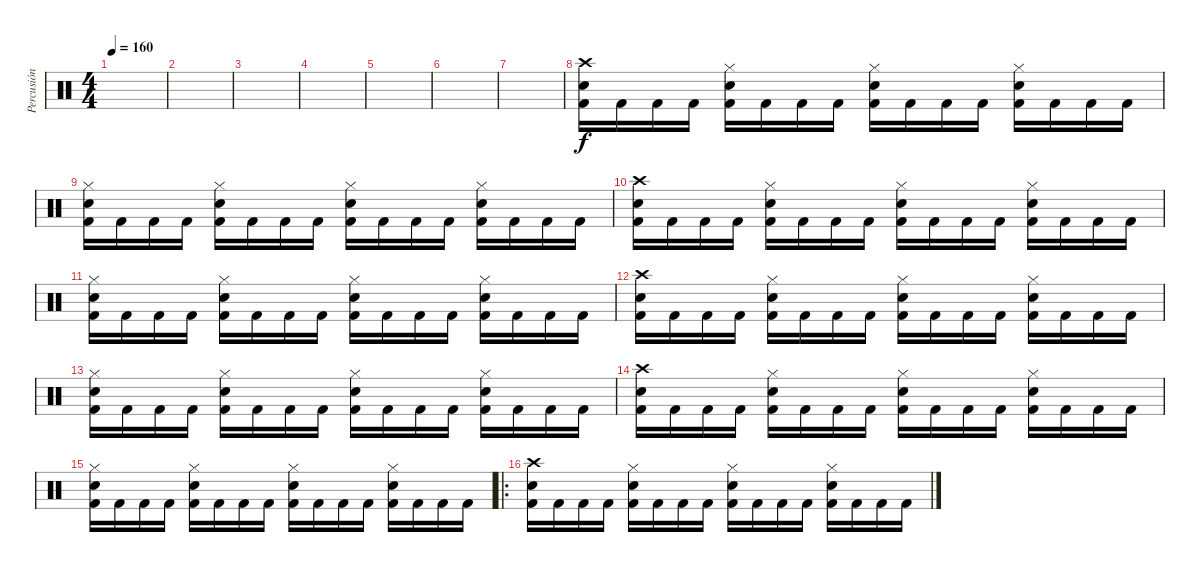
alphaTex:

\track ("Percusión" "Percusión") {instrument percussion}
\staff {score}
\articulation defaults
\ts (4 4)
\tempo 160
\clef neutral
\ks c
|
|
|
|
|
|
|
("Crash high (hit)" "Electric Snare (hit)" "Kick (hit) 2").16 "Kick (hit) 2".16 "Kick (hit) 2".16 "Kick (hit) 2".16 ("Hi-Hat (closed)" "Electric Snare (hit)" "Kick (hit) 2").16 "Kick (hit) 2".16 "Kick (hit) 2".16 "Kick (hit) 2".16 ("Hi-Hat (closed)" "Electric Snare (hit)" "Kick (hit) 2").16 "Kick (hit) 2".16 "Kick (hit) 2".16 "Kick (hit) 2".16 ("Hi-Hat (closed)" "Electric Snare (hit)" "Kick (hit) 2").16 "Kick (hit) 2".16 "Kick (hit) 2".16 "Kick (hit) 2".16 |
("Hi-Hat (closed)" "Electric Snare (hit)" "Kick (hit) 2").16 "Kick (hit) 2".16 "Kick (hit) 2".16 "Kick (hit) 2".16 ("Hi-Hat (closed)" "Electric Snare (hit)" "Kick (hit) 2").16 "Kick (hit) 2".16 "Kick (hit) 2".16 "Kick (hit) 2".16 ("Hi-Hat (closed)" "Electric Snare (hit)" "Kick (hit) 2").16 "Kick (hit) 2".16 "Kick (hit) 2".16 "Kick (hit) 2".16 ("Hi-Hat (closed)" "Electric Snare (hit)" "Kick (hit) 2").16 "Kick (hit) 2".16 "Kick (hit) 2".16 "Kick (hit) 2".16 |
("Crash high (hit)" "Electric Snare (hit)" "Kick (hit) 2").16 "Kick (hit) 2".16 "Kick (hit) 2".16 "Kick (hit) 2".16 ("Hi-Hat (closed)" "Electric Snare (hit)" "Kick (hit) 2").16 "Kick (hit) 2".16 "Kick (hit) 2".16 "Kick (hit) 2".16 ("Hi-Hat (closed)" "Electric Snare (hit)" "Kick (hit) 2").16 "Kick (hit) 2".16 "Kick (hit) 2".16 "Kick (hit) 2".16 ("Hi-Hat (closed)" "Electric Snare (hit)" "Kick (hit) 2").16 "Kick (hit) 2".16 "Kick (hit) 2".16 "Kick (hit) 2".16 |
("Hi-Hat (closed)" "Electric Snare (hit)" "Kick (hit) 2").16 "Kick (hit) 2".16 "Kick (hit) 2".16 "Kick (hit) 2".16 ("Hi-Hat (closed)" "Electric Snare (hit)" "Kick (hit) 2").16 "Kick (hit) 2".16 "Kick (hit) 2".16 "Kick (hit) 2".16 ("Hi-Hat (closed)" "Electric Snare (hit)" "Kick (hit) 2").16 "Kick (hit) 2".16 "Kick (hit) 2".16 "Kick (hit) 2".16 ("Hi-Hat (closed)" "Electric Snare (hit)" "Kick (hit) 2").16 "Kick (hit) 2".16 "Kick (hit) 2".16 "Kick (hit) 2".16 |
("Crash high (hit)" "Electric Snare (hit)" "Kick (hit) 2").16 "Kick (hit) 2".16 "Kick (hit) 2".16 "Kick (hit) 2".16 ("Hi-Hat (closed)" "Electric Snare (hit)" "Kick (hit) 2").16 "Kick (hit) 2".16 "Kick (hit) 2".16 "Kick (hit) 2".16 ("Hi-Hat (closed)" "Electric Snare (hit)" "Kick (hit) 2").16 "Kick (hit) 2".16 "Kick (hit) 2".16 "Kick (hit) 2".16 ("Hi-Hat (closed)" "Electric Snare (hit)" "Kick (hit) 2").16 "Kick (hit) 2".16 "Kick (hit) 2".16 "Kick (hit) 2".16 |
("Hi-Hat (closed)" "Electric Snare (hit)" "Kick (hit) 2").16 "Kick (hit) 2".16 "Kick (hit) 2".16 "Kick (hit) 2".16 ("Hi-Hat (closed)" "Electric Snare (hit)" "Kick (hit) 2").16 "Kick (hit) 2".16 "Kick (hit) 2".16 "Kick (hit) 2".16 ("Hi-Hat (closed)" "Electric Snare (hit)" "Kick (hit) 2").16 "Kick (hit) 2".16 "Kick (hit) 2".16 "Kick (hit) 2".16 ("Hi-Hat (closed)" "Electric Snare (hit)" "Kick (hit) 2").16 "Kick (hit) 2".16 "Kick (hit) 2".16 "Kick (hit) 2".16 |
("Crash high (hit)" "Electric Snare (hit)" "Kick (hit) 2").16 "Kick (hit) 2".16 "Kick (hit) 2".16 "Kick (hit) 2".16 ("Hi-Hat (closed)" "Electric Snare (hit)" "Kick (hit) 2").16 "Kick (hit) 2".16 "Kick (hit) 2".16 "Kick (hit) 2".16 ("Hi-Hat (closed)" "Electric Snare (hit)" "Kick (hit) 2").16 "Kick (hit) 2".16 "Kick (hit) 2".16 "Kick (hit) 2".16 ("Hi-Hat (closed)" "Electric Snare (hit)" "Kick (hit) 2").16 "Kick (hit) 2".16 "Kick (hit) 2".16 "Kick (hit) 2".16 |
("Hi-Hat (closed)" "Electric Snare (hit)" "Kick (hit) 2").16 "Kick (hit) 2".16 "Kick (hit) 2".16 "Kick (hit) 2".16 ("Hi-Hat (closed)" "Electric Snare (hit)" "Kick (hit) 2").16 "Kick (hit) 2".16 "Kick (hit) 2".16 "Kick (hit) 2".16 ("Hi-Hat (closed)" "Electric Snare (hit)" "Kick (hit) 2").16 "Kick (hit) 2".16 "Kick (hit) 2".16 "Kick (hit) 2".16 ("Hi-Hat (closed)" "Electric Snare (hit)" "Kick (hit) 2").16 "Kick (hit) 2".16 "Kick (hit) 2".16 "Kick (hit) 2".16 |
\ro
("Crash high (hit)" "Electric Snare (hit)" "Kick (hit) 2").16 "Kick (hit) 2".16 "Kick (hit) 2".16 "Kick (hit) 2".16 ("Hi-Hat (closed)" "Electric Snare (hit)" "Kick (hit) 2").16 "Kick (hit) 2".16 "Kick (hit) 2".16 "Kick (hit) 2".16 ("Hi-Hat (closed)" "Electric Snare (hit)" "Kick (hit) 2").16 "Kick (hit) 2".16 "Kick (hit) 2".16 "Kick (hit) 2".16 ("Hi-Hat (closed)" "Electric Snare (hit)" "Kick (hit) 2").16 "Kick (hit) 2".16 "Kick (hit) 2".16 "Kick (hit) 2".16
